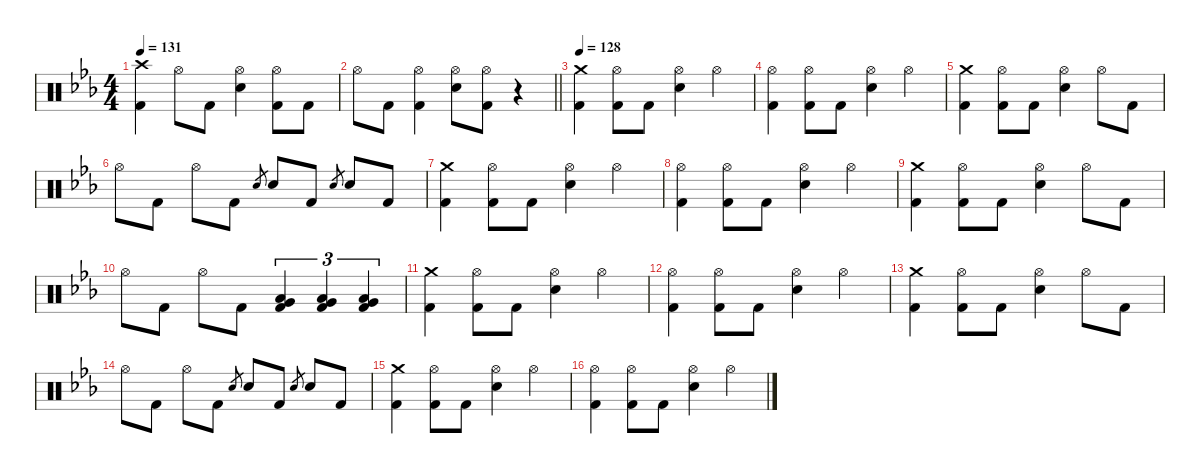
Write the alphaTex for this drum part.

\defaultSystemsLayout 4
\hideDynamics
\bracketExtendMode nobrackets
\singleTrackTrackNamePolicy hidden
\multiTrackTrackNamePolicy hidden
\firstSystemTrackNameMode fullname
\otherSystemsTrackNameOrientation horizontal
\track ("Drums" "drm.") {instrument percussion}
\staff {score}
\articulation defaults
\ts (4 4)
\tempo 131
\clef neutral
\ks cminor
("Crash high (hit)"{acc forcenatural} "Kick (hit) 2"{acc forcenatural}).4{dy f beam Down} "Hi-Hat (open)"{acc forcenatural}.8{dy mp beam Down} "Kick (hit) 2"{acc forcenatural}.8{dy f beam Down} ("Hi-Hat (open)"{acc forcenatural} "Snare (hit) 2"{acc forcenatural}).4{dy mp beam Down} ("Hi-Hat (open)"{acc forcenatural} "Kick (hit) 2"{acc forcenatural}).8{beam Down} "Kick (hit) 2"{acc forcenatural}.8{dy f beam Down} |
\barLineRight lightlight "Hi-Hat (open)"{acc forcenatural}.8{dy mp beam Down} "Kick (hit) 2"{acc forcenatural}.8{dy f beam Down}
("Hi-Hat (open)"{acc forcenatural} "Kick (hit) 2"{acc forcenatural}).4{dy mp beam Down} ("Hi-Hat (open)"{acc forcenatural} "Snare (hit) 2"{acc forcenatural}).8{beam Down} ("Hi-Hat (open)"{acc forcenatural} "Kick (hit) 2"{acc forcenatural}).8{beam Down} r.4{beam Down} |
\tempo 128
("Crash medium (hit)"{acc forcenatural} "Kick (hit) 2"{acc forcenatural}).4{dy f beam Down} ("Hi-Hat (open)"{acc forcenatural} "Kick (hit) 2"{acc forcenatural}).8{dy mp beam Down} "Kick (hit) 2"{acc forcenatural}.8{dy f beam Down} ("Hi-Hat (open)"{acc forcenatural} "Snare (hit) 2"{acc forcenatural}).4{dy mp beam Down} "Hi-Hat (open)"{acc forcenatural}.4{beam Down} |
("Hi-Hat (open)"{acc forcenatural} "Kick (hit) 2"{acc forcenatural}).4{beam Down} ("Hi-Hat (open)"{acc forcenatural} "Kick (hit) 2"{acc forcenatural}).8{beam Down} "Kick (hit) 2"{acc forcenatural}.8{dy f beam Down} ("Hi-Hat (open)"{acc forcenatural} "Snare (hit) 2"{acc forcenatural}).4{dy mp beam Down} "Hi-Hat (open)"{acc forcenatural}.4{beam Down} |
("Crash medium (hit)"{acc forcenatural} "Kick (hit) 2"{acc forcenatural}).4{dy f beam Down} ("Hi-Hat (open)"{acc forcenatural} "Kick (hit) 2"{acc forcenatural}).8{dy mp beam Down} "Kick (hit) 2"{acc forcenatural}.8{dy f beam Down} ("Hi-Hat (open)"{acc forcenatural} "Snare (hit) 2"{acc forcenatural}).4{dy mp beam Down} "Hi-Hat (open)"{acc forcenatural}.8{beam Down} "Kick (hit) 2"{acc forcenatural}.8{dy f beam Down} |
"Hi-Hat (open)"{acc forcenatural}.8{dy mp beam Down} "Kick (hit) 2"{acc forcenatural}.8{dy f beam Down} "Hi-Hat (open)"{acc forcenatural}.8{dy mp beam Down} "Kick (hit) 2"{acc forcenatural}.8{dy f beam Down} "Electric Snare (hit)"{acc forcenatural}.8{gr dy mf beam Up} "Snare (hit) 2"{acc forcenatural}.8{dy f beam Up} "Kick (hit) 2"{acc forcenatural}.8{beam Up} "Electric Snare (hit)"{acc forcenatural}.8{gr dy mf beam Up} "Snare (hit) 2"{acc forcenatural}.8{dy f beam Up} "Kick (hit) 2"{acc forcenatural}.8{beam Up} |
("Crash medium (hit)"{acc forcenatural} "Kick (hit) 2"{acc forcenatural}).4{beam Down} ("Hi-Hat (open)"{acc forcenatural} "Kick (hit) 2"{acc forcenatural}).8{dy mp beam Down} "Kick (hit) 2"{acc forcenatural}.8{dy f beam Down} ("Hi-Hat (open)"{acc forcenatural} "Snare (hit) 2"{acc forcenatural}).4{dy mp beam Down} "Hi-Hat (open)"{acc forcenatural}.4{beam Down} |
("Hi-Hat (open)"{acc forcenatural} "Kick (hit) 2"{acc forcenatural}).4{beam Down} ("Hi-Hat (open)"{acc forcenatural} "Kick (hit) 2"{acc forcenatural}).8{beam Down} "Kick (hit) 2"{acc forcenatural}.8{dy f beam Down} ("Hi-Hat (open)"{acc forcenatural} "Snare (hit) 2"{acc forcenatural}).4{dy mp beam Down} "Hi-Hat (open)"{acc forcenatural}.4{beam Down} |
("Crash medium (hit)"{acc forcenatural} "Kick (hit) 2"{acc forcenatural}).4{dy f beam Down} ("Hi-Hat (open)"{acc forcenatural} "Kick (hit) 2"{acc forcenatural}).8{dy mp beam Down} "Kick (hit) 2"{acc forcenatural}.8{dy f beam Down} ("Hi-Hat (open)"{acc forcenatural} "Snare (hit) 2"{acc forcenatural}).4{dy mp beam Down} "Hi-Hat (open)"{acc forcenatural}.8{beam Down} "Kick (hit) 2"{acc forcenatural}.8{dy f beam Down} |
"Hi-Hat (open)"{acc forcenatural}.8{dy mp beam Down} "Kick (hit) 2"{acc forcenatural}.8{dy f beam Down} "Hi-Hat (open)"{acc forcenatural}.8{dy mp beam Down} "Kick (hit) 2"{acc forcenatural}.8{dy f beam Down} ("Low Tom (hit)"{acc forcenatural} "Very Low Tom (hit)"{acc forcenatural} "Kick (hit) 2"{acc forcenatural}).4{tu (3 2) beam Up} ("Low Tom (hit)"{acc forcenatural} "Very Low Tom (hit)"{acc forcenatural} "Kick (hit) 2"{acc forcenatural}).4{tu (3 2) beam Up} ("Low Tom (hit)"{acc forcenatural} "Very Low Tom (hit)"{acc forcenatural} "Kick (hit) 2"{acc forcenatural}).4{tu (3 2) beam Up} |
("Crash medium (hit)"{acc forcenatural} "Kick (hit) 2"{acc forcenatural}).4{beam Down} ("Hi-Hat (open)"{acc forcenatural} "Kick (hit) 2"{acc forcenatural}).8{dy mp beam Down} "Kick (hit) 2"{acc forcenatural}.8{dy f beam Down} ("Hi-Hat (open)"{acc forcenatural} "Snare (hit) 2"{acc forcenatural}).4{dy mp beam Down} "Hi-Hat (open)"{acc forcenatural}.4{beam Down} |
("Hi-Hat (open)"{acc forcenatural} "Kick (hit) 2"{acc forcenatural}).4{beam Down} ("Hi-Hat (open)"{acc forcenatural} "Kick (hit) 2"{acc forcenatural}).8{beam Down} "Kick (hit) 2"{acc forcenatural}.8{dy f beam Down} ("Hi-Hat (open)"{acc forcenatural} "Snare (hit) 2"{acc forcenatural}).4{dy mp beam Down} "Hi-Hat (open)"{acc forcenatural}.4{beam Down} |
("Crash medium (hit)"{acc forcenatural} "Kick (hit) 2"{acc forcenatural}).4{dy f beam Down} ("Hi-Hat (open)"{acc forcenatural} "Kick (hit) 2"{acc forcenatural}).8{dy mp beam Down} "Kick (hit) 2"{acc forcenatural}.8{dy f beam Down} ("Hi-Hat (open)"{acc forcenatural} "Snare (hit) 2"{acc forcenatural}).4{dy mp beam Down} "Hi-Hat (open)"{acc forcenatural}.8{beam Down} "Kick (hit) 2"{acc forcenatural}.8{dy f beam Down} |
"Hi-Hat (open)"{acc forcenatural}.8{dy mp beam Down} "Kick (hit) 2"{acc forcenatural}.8{dy f beam Down} "Hi-Hat (open)"{acc forcenatural}.8{dy mp beam Down} "Kick (hit) 2"{acc forcenatural}.8{dy f beam Down} "Electric Snare (hit)"{acc forcenatural}.8{gr dy mf beam Up} "Snare (hit) 2"{acc forcenatural}.8{dy f beam Up} "Kick (hit) 2"{acc forcenatural}.8{beam Up} "Electric Snare (hit)"{acc forcenatural}.8{gr dy mf beam Up} "Snare (hit) 2"{acc forcenatural}.8{dy f beam Up} "Kick (hit) 2"{acc forcenatural}.8{beam Up} |
("Crash medium (hit)"{acc forcenatural} "Kick (hit) 2"{acc forcenatural}).4{beam Down} ("Hi-Hat (open)"{acc forcenatural} "Kick (hit) 2"{acc forcenatural}).8{dy mp beam Down} "Kick (hit) 2"{acc forcenatural}.8{dy f beam Down} ("Hi-Hat (open)"{acc forcenatural} "Snare (hit) 2"{acc forcenatural}).4{dy mp beam Down} "Hi-Hat (open)"{acc forcenatural}.4{beam Down} |
("Hi-Hat (open)"{acc forcenatural} "Kick (hit) 2"{acc forcenatural}).4{beam Down} ("Hi-Hat (open)"{acc forcenatural} "Kick (hit) 2"{acc forcenatural}).8{beam Down} "Kick (hit) 2"{acc forcenatural}.8{dy f beam Down} ("Hi-Hat (open)"{acc forcenatural} "Snare (hit) 2"{acc forcenatural}).4{dy mp beam Down} "Hi-Hat (open)"{acc forcenatural}.4{beam Down}
